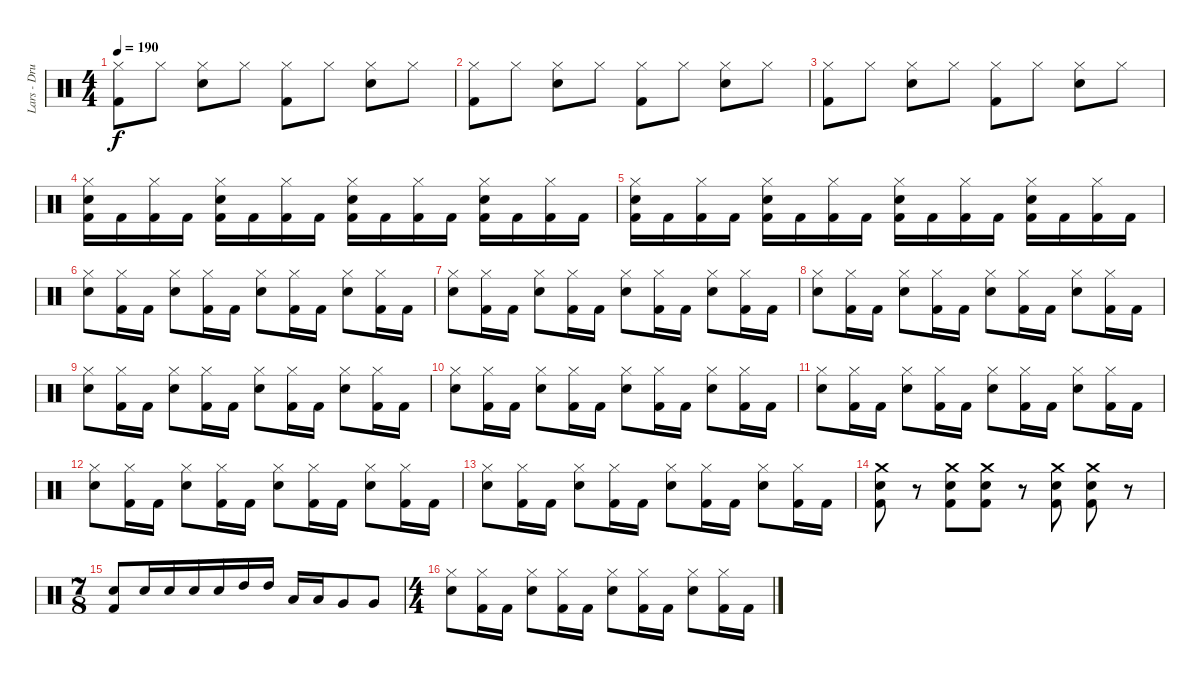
\track ("Lars - Drums" "Lars - Dru") {instrument percussion}
\staff {score}
\articulation defaults
\ts (4 4)
\tempo 190
\clef neutral
\ks c
("Kick (hit) 2" "Hi-Hat (closed)").8{dy f} "Hi-Hat (closed)".8 ("Snare (hit) 2" "Hi-Hat (closed)").8 "Hi-Hat (closed)".8 ("Kick (hit) 2" "Hi-Hat (closed)").8 "Hi-Hat (closed)".8 ("Snare (hit) 2" "Hi-Hat (closed)").8 "Hi-Hat (closed)".8 |
("Kick (hit) 2" "Hi-Hat (closed)").8 "Hi-Hat (closed)".8 ("Snare (hit) 2" "Hi-Hat (closed)").8 "Hi-Hat (closed)".8 ("Kick (hit) 2" "Hi-Hat (closed)").8 "Hi-Hat (closed)".8 ("Snare (hit) 2" "Hi-Hat (closed)").8 "Hi-Hat (closed)".8 |
("Kick (hit) 2" "Hi-Hat (closed)").8 "Hi-Hat (closed)".8 ("Snare (hit) 2" "Hi-Hat (closed)").8 "Hi-Hat (closed)".8 ("Kick (hit) 2" "Hi-Hat (closed)").8 "Hi-Hat (closed)".8 ("Snare (hit) 2" "Hi-Hat (closed)").8 "Hi-Hat (closed)".8 |
("Kick (hit) 2" "Snare (hit) 2" "Hi-Hat (closed)").16 "Kick (hit) 2".16 ("Kick (hit) 2" "Hi-Hat (closed)").16 "Kick (hit) 2".16 ("Kick (hit) 2" "Snare (hit) 2" "Hi-Hat (closed)").16 "Kick (hit) 2".16 ("Kick (hit) 2" "Hi-Hat (closed)").16 "Kick (hit) 2".16 ("Kick (hit) 2" "Snare (hit) 2" "Hi-Hat (closed)").16 "Kick (hit) 2".16 ("Kick (hit) 2" "Hi-Hat (closed)").16 "Kick (hit) 2".16 ("Kick (hit) 2" "Snare (hit) 2" "Hi-Hat (closed)").16 "Kick (hit) 2".16 ("Kick (hit) 2" "Hi-Hat (closed)").16 "Kick (hit) 2".16 |
("Kick (hit) 2" "Snare (hit) 2" "Hi-Hat (closed)").16 "Kick (hit) 2".16 ("Kick (hit) 2" "Hi-Hat (closed)").16 "Kick (hit) 2".16 ("Kick (hit) 2" "Snare (hit) 2" "Hi-Hat (closed)").16 "Kick (hit) 2".16 ("Kick (hit) 2" "Hi-Hat (closed)").16 "Kick (hit) 2".16 ("Kick (hit) 2" "Snare (hit) 2" "Hi-Hat (closed)").16 "Kick (hit) 2".16 ("Kick (hit) 2" "Hi-Hat (closed)").16 "Kick (hit) 2".16 ("Kick (hit) 2" "Snare (hit) 2" "Hi-Hat (closed)").16 "Kick (hit) 2".16 ("Kick (hit) 2" "Hi-Hat (closed)").16 "Kick (hit) 2".16 |
("Snare (hit) 2" "Hi-Hat (closed)").8 ("Kick (hit) 2" "Hi-Hat (closed)").16 "Kick (hit) 2".16 ("Snare (hit) 2" "Hi-Hat (closed)").8 ("Kick (hit) 2" "Hi-Hat (closed)").16 "Kick (hit) 2".16 ("Snare (hit) 2" "Hi-Hat (closed)").8 ("Kick (hit) 2" "Hi-Hat (closed)").16 "Kick (hit) 2".16 ("Snare (hit) 2" "Hi-Hat (closed)").8 ("Kick (hit) 2" "Hi-Hat (closed)").16 "Kick (hit) 2".16 |
("Snare (hit) 2" "Hi-Hat (closed)").8 ("Kick (hit) 2" "Hi-Hat (closed)").16 "Kick (hit) 2".16 ("Snare (hit) 2" "Hi-Hat (closed)").8 ("Kick (hit) 2" "Hi-Hat (closed)").16 "Kick (hit) 2".16 ("Snare (hit) 2" "Hi-Hat (closed)").8 ("Kick (hit) 2" "Hi-Hat (closed)").16 "Kick (hit) 2".16 ("Snare (hit) 2" "Hi-Hat (closed)").8 ("Kick (hit) 2" "Hi-Hat (closed)").16 "Kick (hit) 2".16 |
("Snare (hit) 2" "Hi-Hat (closed)").8 ("Kick (hit) 2" "Hi-Hat (closed)").16 "Kick (hit) 2".16 ("Snare (hit) 2" "Hi-Hat (closed)").8 ("Kick (hit) 2" "Hi-Hat (closed)").16 "Kick (hit) 2".16 ("Snare (hit) 2" "Hi-Hat (closed)").8 ("Kick (hit) 2" "Hi-Hat (closed)").16 "Kick (hit) 2".16 ("Snare (hit) 2" "Hi-Hat (closed)").8 ("Kick (hit) 2" "Hi-Hat (closed)").16 "Kick (hit) 2".16 |
("Snare (hit) 2" "Hi-Hat (closed)").8 ("Kick (hit) 2" "Hi-Hat (closed)").16 "Kick (hit) 2".16 ("Snare (hit) 2" "Hi-Hat (closed)").8 ("Kick (hit) 2" "Hi-Hat (closed)").16 "Kick (hit) 2".16 ("Snare (hit) 2" "Hi-Hat (closed)").8 ("Kick (hit) 2" "Hi-Hat (closed)").16 "Kick (hit) 2".16 ("Snare (hit) 2" "Hi-Hat (closed)").8 ("Kick (hit) 2" "Hi-Hat (closed)").16 "Kick (hit) 2".16 |
("Snare (hit) 2" "Hi-Hat (closed)").8 ("Kick (hit) 2" "Hi-Hat (closed)").16 "Kick (hit) 2".16 ("Snare (hit) 2" "Hi-Hat (closed)").8 ("Kick (hit) 2" "Hi-Hat (closed)").16 "Kick (hit) 2".16 ("Snare (hit) 2" "Hi-Hat (closed)").8 ("Kick (hit) 2" "Hi-Hat (closed)").16 "Kick (hit) 2".16 ("Snare (hit) 2" "Hi-Hat (closed)").8 ("Kick (hit) 2" "Hi-Hat (closed)").16 "Kick (hit) 2".16 |
("Snare (hit) 2" "Hi-Hat (closed)").8 ("Kick (hit) 2" "Hi-Hat (closed)").16 "Kick (hit) 2".16 ("Snare (hit) 2" "Hi-Hat (closed)").8 ("Kick (hit) 2" "Hi-Hat (closed)").16 "Kick (hit) 2".16 ("Snare (hit) 2" "Hi-Hat (closed)").8 ("Kick (hit) 2" "Hi-Hat (closed)").16 "Kick (hit) 2".16 ("Snare (hit) 2" "Hi-Hat (closed)").8 ("Kick (hit) 2" "Hi-Hat (closed)").16 "Kick (hit) 2".16 |
("Snare (hit) 2" "Hi-Hat (closed)").8 ("Kick (hit) 2" "Hi-Hat (closed)").16 "Kick (hit) 2".16 ("Snare (hit) 2" "Hi-Hat (closed)").8 ("Kick (hit) 2" "Hi-Hat (closed)").16 "Kick (hit) 2".16 ("Snare (hit) 2" "Hi-Hat (closed)").8 ("Kick (hit) 2" "Hi-Hat (closed)").16 "Kick (hit) 2".16 ("Snare (hit) 2" "Hi-Hat (closed)").8 ("Kick (hit) 2" "Hi-Hat (closed)").16 "Kick (hit) 2".16 |
("Snare (hit) 2" "Hi-Hat (closed)").8 ("Kick (hit) 2" "Hi-Hat (closed)").16 "Kick (hit) 2".16 ("Snare (hit) 2" "Hi-Hat (closed)").8 ("Kick (hit) 2" "Hi-Hat (closed)").16 "Kick (hit) 2".16 ("Snare (hit) 2" "Hi-Hat (closed)").8 ("Kick (hit) 2" "Hi-Hat (closed)").16 "Kick (hit) 2".16 ("Snare (hit) 2" "Hi-Hat (closed)").8 ("Kick (hit) 2" "Hi-Hat (closed)").16 "Kick (hit) 2".16 |
("Crash medium (hit)" "Snare (hit) 2" "Kick (hit) 2").8 r.8 ("Crash medium (hit)" "Snare (hit) 2" "Kick (hit) 2").8 ("Crash medium (hit)" "Snare (hit) 2" "Kick (hit) 2").8 r.8 ("Crash medium (hit)" "Snare (hit) 2" "Kick (hit) 2").8 ("Crash medium (hit)" "Snare (hit) 2" "Kick (hit) 2").8 r.8 |
\ts (7 8)
("Snare (hit) 2" "Kick (hit) 2").8 "Snare (hit) 2".16 "Snare (hit) 2".16 "Snare (hit) 2".16 "Snare (hit) 2".16 "High Tom (hit)".16 "High Tom (hit)".16 "Low Tom (hit)".16 "Low Tom (hit)".16 "Very Low Tom (hit)".8 "Very Low Tom (hit)".8 |
\ts (4 4)
("Snare (hit) 2" "Hi-Hat (closed)").8 ("Kick (hit) 2" "Hi-Hat (closed)").16 "Kick (hit) 2".16 ("Snare (hit) 2" "Hi-Hat (closed)").8 ("Kick (hit) 2" "Hi-Hat (closed)").16 "Kick (hit) 2".16 ("Snare (hit) 2" "Hi-Hat (closed)").8 ("Kick (hit) 2" "Hi-Hat (closed)").16 "Kick (hit) 2".16 ("Snare (hit) 2" "Hi-Hat (closed)").8 ("Kick (hit) 2" "Hi-Hat (closed)").16 "Kick (hit) 2".16
